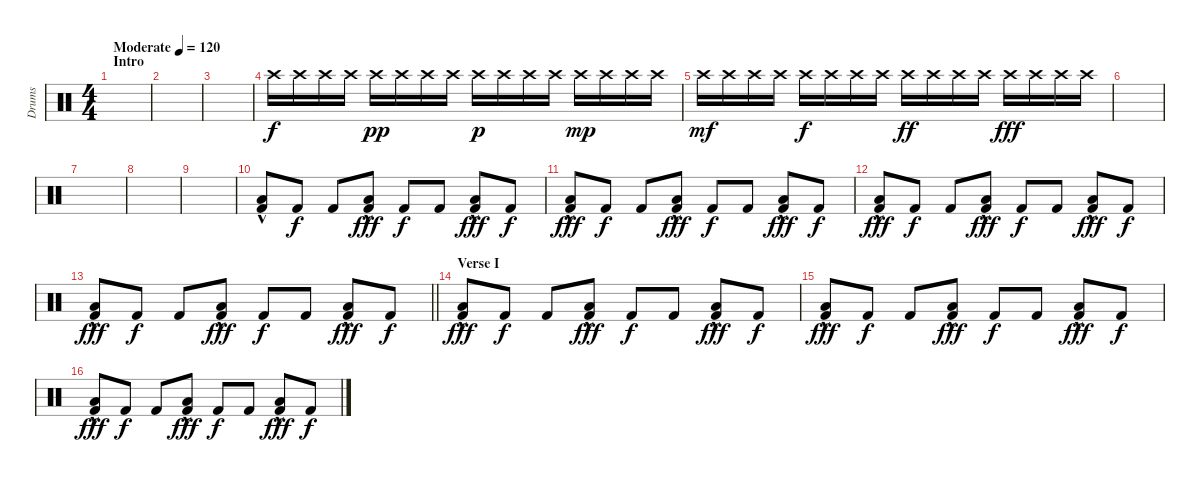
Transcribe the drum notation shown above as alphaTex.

\track ("Drums" "Drums") {instrument percussion}
\staff {score}
\articulation defaults
\ts (4 4)
\section ("" "Intro")
\tempo (120 "Moderate")
\clef neutral
\ks c
|
|
|
"Crash high (hit)".16 "Crash high (hit)".16 "Crash high (hit)".16 "Crash high (hit)".16 "Crash high (hit)".16{dy pp} "Crash high (hit)".16 "Crash high (hit)".16 "Crash high (hit)".16 "Crash high (hit)".16{dy p} "Crash high (hit)".16 "Crash high (hit)".16 "Crash high (hit)".16 "Crash high (hit)".16{dy mp} "Crash high (hit)".16 "Crash high (hit)".16 "Crash high (hit)".16 |
"Crash high (hit)".16{dy mf} "Crash high (hit)".16 "Crash high (hit)".16 "Crash high (hit)".16 "Crash high (hit)".16{dy f} "Crash high (hit)".16 "Crash high (hit)".16 "Crash high (hit)".16 "Crash high (hit)".16{dy ff} "Crash high (hit)".16 "Crash high (hit)".16 "Crash high (hit)".16 "Crash high (hit)".16{dy fff} "Crash high (hit)".16 "Crash high (hit)".16 "Crash high (hit)".16 |
|
|
|
|
("Low Floor Tom (hit)" "Kick (hit) 2"{hac}).8 "Kick (hit) 2".8{dy f} "Kick (hit) 2".8 ("Low Floor Tom (hit)" "Kick (hit) 2"{hac}).8{dy fff} "Kick (hit) 2".8{dy f} "Kick (hit) 2".8 ("Low Floor Tom (hit)" "Kick (hit) 2"{hac}).8{dy fff} "Kick (hit) 2".8{dy f} |
("Low Floor Tom (hit)" "Kick (hit) 2"{hac}).8{dy fff} "Kick (hit) 2".8{dy f} "Kick (hit) 2".8 ("Low Floor Tom (hit)" "Kick (hit) 2"{hac}).8{dy fff} "Kick (hit) 2".8{dy f} "Kick (hit) 2".8 ("Low Floor Tom (hit)" "Kick (hit) 2"{hac}).8{dy fff} "Kick (hit) 2".8{dy f} |
("Low Floor Tom (hit)" "Kick (hit) 2"{hac}).8{dy fff} "Kick (hit) 2".8{dy f} "Kick (hit) 2".8 ("Low Floor Tom (hit)" "Kick (hit) 2"{hac}).8{dy fff} "Kick (hit) 2".8{dy f} "Kick (hit) 2".8 ("Low Floor Tom (hit)" "Kick (hit) 2"{hac}).8{dy fff} "Kick (hit) 2".8{dy f} |
\barLineRight lightlight
("Low Floor Tom (hit)" "Kick (hit) 2"{hac}).8{dy fff} "Kick (hit) 2".8{dy f} "Kick (hit) 2".8 ("Low Floor Tom (hit)" "Kick (hit) 2"{hac}).8{dy fff} "Kick (hit) 2".8{dy f} "Kick (hit) 2".8 ("Low Floor Tom (hit)" "Kick (hit) 2"{hac}).8{dy fff} "Kick (hit) 2".8{dy f} |
\section ("" "Verse I")
("Low Floor Tom (hit)" "Kick (hit) 2"{hac}).8{dy fff} "Kick (hit) 2".8{dy f} "Kick (hit) 2".8 ("Low Floor Tom (hit)" "Kick (hit) 2"{hac}).8{dy fff} "Kick (hit) 2".8{dy f} "Kick (hit) 2".8 ("Low Floor Tom (hit)" "Kick (hit) 2"{hac}).8{dy fff} "Kick (hit) 2".8{dy f} |
("Low Floor Tom (hit)" "Kick (hit) 2"{hac}).8{dy fff} "Kick (hit) 2".8{dy f} "Kick (hit) 2".8 ("Low Floor Tom (hit)" "Kick (hit) 2"{hac}).8{dy fff} "Kick (hit) 2".8{dy f} "Kick (hit) 2".8 ("Low Floor Tom (hit)" "Kick (hit) 2"{hac}).8{dy fff} "Kick (hit) 2".8{dy f} |
("Low Floor Tom (hit)" "Kick (hit) 2"{hac}).8{dy fff} "Kick (hit) 2".8{dy f} "Kick (hit) 2".8 ("Low Floor Tom (hit)" "Kick (hit) 2"{hac}).8{dy fff} "Kick (hit) 2".8{dy f} "Kick (hit) 2".8 ("Low Floor Tom (hit)" "Kick (hit) 2"{hac}).8{dy fff} "Kick (hit) 2".8{dy f}
